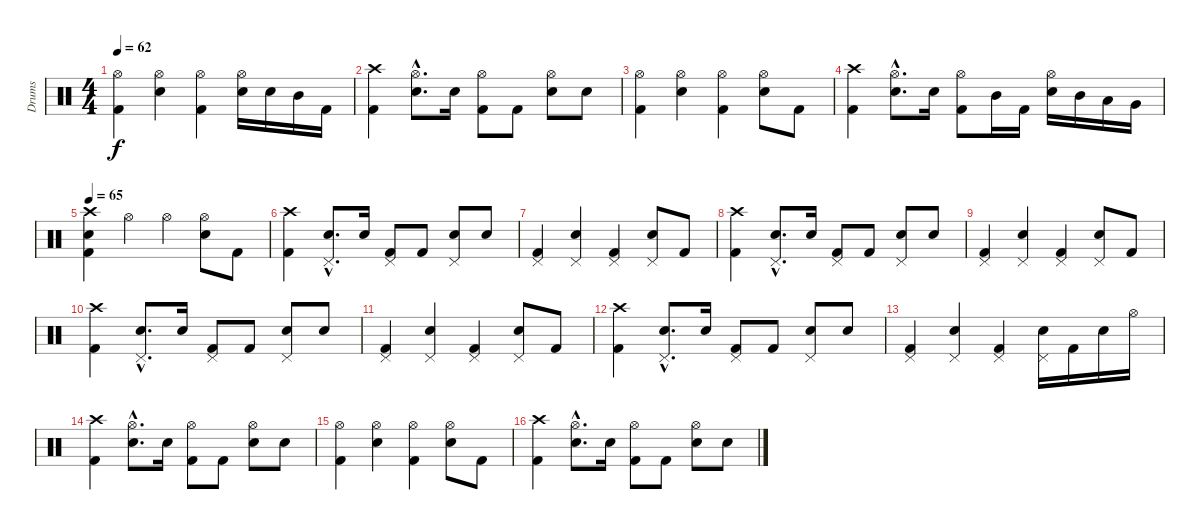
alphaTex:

\track ("Drums" "Drums") {instrument percussion}
\staff {score}
\articulation defaults
\ts (4 4)
\tempo 62
\clef neutral
\ks c
("Hi-Hat (open)" "Kick (hit) 2").4{dy f} ("Hi-Hat (open)" "Snare (hit) 2").4 ("Hi-Hat (open)" "Kick (hit) 2").4 ("Hi-Hat (open)" "Snare (hit) 2").16 "Snare (hit) 2".16 "Mid Tom (hit)".16 "Kick (hit) 2".16 |
("Crash high (hit)" "Kick (hit) 2").4 ("Hi-Hat (open)"{hac} "Snare (hit) 2"{hac}).8{d} "Snare (hit) 2".16 ("Hi-Hat (open)" "Kick (hit) 2").8 "Kick (hit) 2".8 ("Hi-Hat (open)" "Snare (hit) 2").8 "Snare (hit) 2".8 |
("Hi-Hat (open)" "Kick (hit) 2").4 ("Hi-Hat (open)" "Snare (hit) 2").4 ("Hi-Hat (open)" "Kick (hit) 2").4 ("Hi-Hat (open)" "Snare (hit) 2").8 "Kick (hit) 2".8 |
("Crash high (hit)" "Kick (hit) 2").4 ("Hi-Hat (open)"{hac} "Snare (hit) 2"{hac}).8{d} "Snare (hit) 2".16 ("Hi-Hat (open)" "Kick (hit) 2").8 "Mid Tom (hit)".16 "Kick (hit) 2".16 ("Hi-Hat (open)" "Snare (hit) 2").16 "Mid Tom (hit)".16 "Low Tom (hit)".16 "Very Low Tom (hit)".16 |
\tempo 65
("Crash high (hit)" "Snare (hit) 2" "Kick (hit) 2").4 "Hi-Hat (open)".4 "Hi-Hat (open)".4 ("Hi-Hat (open)" "Snare (hit) 2").8 "Kick (hit) 2".8 |
("Crash high (hit)" "Kick (hit) 2").4 ("Pedal Hi-Hat (hit)"{hac} "Snare (hit) 2"{hac}).8{d} "Snare (hit) 2".16 ("Pedal Hi-Hat (hit)" "Kick (hit) 2").8 "Kick (hit) 2".8 ("Pedal Hi-Hat (hit)" "Snare (hit) 2").8 "Snare (hit) 2".8 |
("Pedal Hi-Hat (hit)" "Kick (hit) 2").4 ("Pedal Hi-Hat (hit)" "Snare (hit) 2").4 ("Pedal Hi-Hat (hit)" "Kick (hit) 2").4 ("Pedal Hi-Hat (hit)" "Snare (hit) 2").8 "Kick (hit) 2".8 |
("Crash high (hit)" "Kick (hit) 2").4 ("Pedal Hi-Hat (hit)"{hac} "Snare (hit) 2"{hac}).8{d} "Snare (hit) 2".16 ("Pedal Hi-Hat (hit)" "Kick (hit) 2").8 "Kick (hit) 2".8 ("Pedal Hi-Hat (hit)" "Snare (hit) 2").8 "Snare (hit) 2".8 |
("Pedal Hi-Hat (hit)" "Kick (hit) 2").4 ("Pedal Hi-Hat (hit)" "Snare (hit) 2").4 ("Pedal Hi-Hat (hit)" "Kick (hit) 2").4 ("Pedal Hi-Hat (hit)" "Snare (hit) 2").8 "Kick (hit) 2".8 |
("Crash high (hit)" "Kick (hit) 2").4 ("Pedal Hi-Hat (hit)"{hac} "Snare (hit) 2"{hac}).8{d} "Snare (hit) 2".16 ("Pedal Hi-Hat (hit)" "Kick (hit) 2").8 "Kick (hit) 2".8 ("Pedal Hi-Hat (hit)" "Snare (hit) 2").8 "Snare (hit) 2".8 |
("Pedal Hi-Hat (hit)" "Kick (hit) 2").4 ("Pedal Hi-Hat (hit)" "Snare (hit) 2").4 ("Pedal Hi-Hat (hit)" "Kick (hit) 2").4 ("Pedal Hi-Hat (hit)" "Snare (hit) 2").8 "Kick (hit) 2".8 |
("Crash high (hit)" "Kick (hit) 2").4 ("Pedal Hi-Hat (hit)"{hac} "Snare (hit) 2"{hac}).8{d} "Snare (hit) 2".16 ("Pedal Hi-Hat (hit)" "Kick (hit) 2").8 "Kick (hit) 2".8 ("Pedal Hi-Hat (hit)" "Snare (hit) 2").8 "Snare (hit) 2".8 |
("Pedal Hi-Hat (hit)" "Kick (hit) 2").4 ("Pedal Hi-Hat (hit)" "Snare (hit) 2").4 ("Pedal Hi-Hat (hit)" "Kick (hit) 2").4 ("Pedal Hi-Hat (hit)" "Snare (hit) 2").16 "Kick (hit) 2".16 "Snare (hit) 2".16 "Hi-Hat (open)".16 |
("Crash high (hit)" "Kick (hit) 2").4 ("Hi-Hat (open)"{hac} "Snare (hit) 2"{hac}).8{d} "Snare (hit) 2".16 ("Hi-Hat (open)" "Kick (hit) 2").8 "Kick (hit) 2".8 ("Hi-Hat (open)" "Snare (hit) 2").8 "Snare (hit) 2".8 |
("Hi-Hat (open)" "Kick (hit) 2").4 ("Hi-Hat (open)" "Snare (hit) 2").4 ("Hi-Hat (open)" "Kick (hit) 2").4 ("Hi-Hat (open)" "Snare (hit) 2").8 "Kick (hit) 2".8 |
("Crash high (hit)" "Kick (hit) 2").4 ("Hi-Hat (open)"{hac} "Snare (hit) 2"{hac}).8{d} "Snare (hit) 2".16 ("Hi-Hat (open)" "Kick (hit) 2").8 "Kick (hit) 2".8 ("Hi-Hat (open)" "Snare (hit) 2").8 "Snare (hit) 2".8
